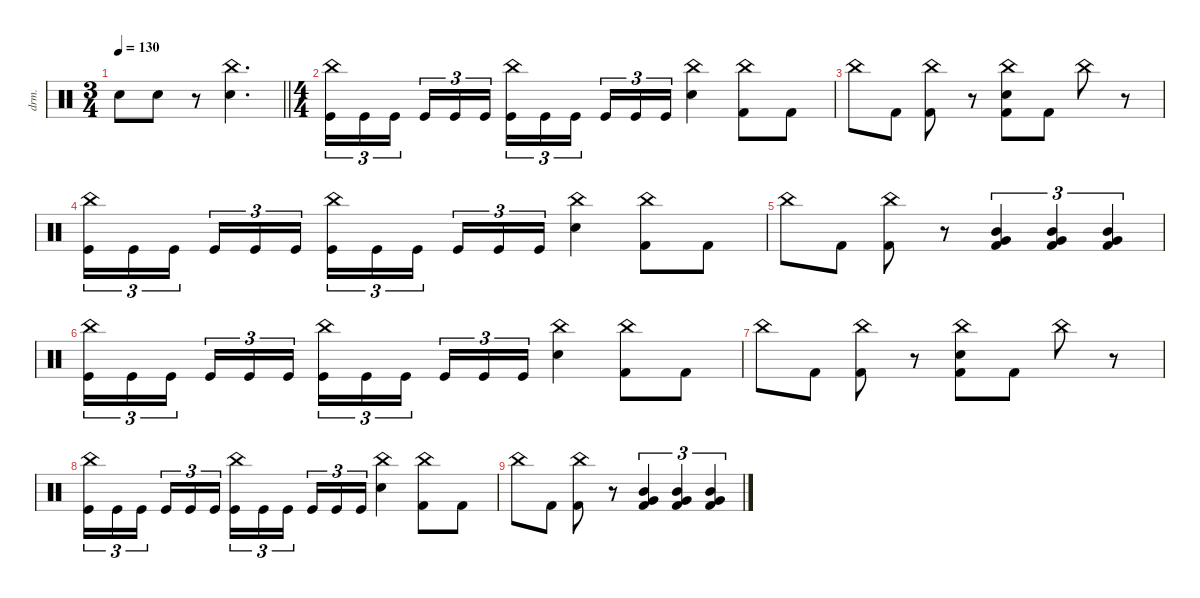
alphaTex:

\defaultSystemsLayout 4
\hideDynamics
\bracketExtendMode nobrackets
\track ("Manouche" "drm.") {solo instrument percussion}
\staff {score}
\articulation defaults
\ts (3 4)
\tempo 130
\clef neutral
\barLineRight lightlight
\ks c "Snare (hit) 2".8{dy f beam Down} "Snare (hit) 2".8{beam Down}
r.8{beam Down} ("China (hit)" "Snare (hit) 2").4{d beam Down} |
\ts (4 4)
\beaming (8 2 2 2 2)
("Kick (hit)" "China (hit)").16{tu (3 2) beam Down} "Kick (hit)".16{tu (3 2) beam Down} "Kick (hit)".16{tu (3 2) beam Down} "Kick (hit)".16{tu (3 2) beam Up} "Kick (hit)".16{tu (3 2) beam Up} "Kick (hit)".16{tu (3 2) beam Up} ("China (hit)" "Kick (hit)").16{tu (3 2) beam Down} "Kick (hit)".16{tu (3 2) beam Down} "Kick (hit)".16{tu (3 2) beam Down} "Kick (hit)".16{tu (3 2) beam Up} "Kick (hit)".16{tu (3 2) beam Up} "Kick (hit)".16{tu (3 2) beam Up} ("China (hit)" "Snare (hit) 2").4{beam Down} ("Kick (hit) 2" "China (hit)").8{beam Down} "Kick (hit) 2".8{beam Down} |
"China (hit)".8{beam Down} "Kick (hit) 2".8{beam Down} ("Kick (hit) 2" "China (hit)").8{beam Down} r.8{beam Down} ("Kick (hit) 2" "China (hit)" "Snare (hit) 2").8{beam Down} "Kick (hit) 2".8{beam Down} "China (hit)".8{beam Down} r.8{beam Down} |
("Kick (hit)" "China (hit)").16{tu (3 2) beam Down} "Kick (hit)".16{tu (3 2) beam Down} "Kick (hit)".16{tu (3 2) beam Down} "Kick (hit)".16{tu (3 2) beam Up} "Kick (hit)".16{tu (3 2) beam Up} "Kick (hit)".16{tu (3 2) beam Up} ("China (hit)" "Kick (hit)").16{tu (3 2) beam Down} "Kick (hit)".16{tu (3 2) beam Down} "Kick (hit)".16{tu (3 2) beam Down} "Kick (hit)".16{tu (3 2) beam Up} "Kick (hit)".16{tu (3 2) beam Up} "Kick (hit)".16{tu (3 2) beam Up} ("China (hit)" "Snare (hit) 2").4{beam Down} ("Kick (hit) 2" "China (hit)").8{beam Down} "Kick (hit) 2".8{beam Down} |
"China (hit)".8{beam Down} "Kick (hit) 2".8{beam Down} ("Kick (hit) 2" "China (hit)").8{beam Down} r.8{beam Down} ("Kick (hit) 2" "Mid Tom (hit)" "Very Low Tom (hit)").4{tu (3 2) beam Up} ("Kick (hit) 2" "Mid Tom (hit)" "Very Low Tom (hit)").4{tu (3 2) beam Up} ("Kick (hit) 2" "Mid Tom (hit)" "Very Low Tom (hit)").4{tu (3 2) beam Up} |
("Kick (hit)" "China (hit)").16{tu (3 2) beam Down} "Kick (hit)".16{tu (3 2) beam Down} "Kick (hit)".16{tu (3 2) beam Down} "Kick (hit)".16{tu (3 2) beam Up} "Kick (hit)".16{tu (3 2) beam Up} "Kick (hit)".16{tu (3 2) beam Up} ("China (hit)" "Kick (hit)").16{tu (3 2) beam Down} "Kick (hit)".16{tu (3 2) beam Down} "Kick (hit)".16{tu (3 2) beam Down} "Kick (hit)".16{tu (3 2) beam Up} "Kick (hit)".16{tu (3 2) beam Up} "Kick (hit)".16{tu (3 2) beam Up} ("China (hit)" "Snare (hit) 2").4{beam Down} ("Kick (hit) 2" "China (hit)").8{beam Down} "Kick (hit) 2".8{beam Down} |
"China (hit)".8{beam Down} "Kick (hit) 2".8{beam Down} ("Kick (hit) 2" "China (hit)").8{beam Down} r.8{beam Down} ("Kick (hit) 2" "China (hit)" "Snare (hit) 2").8{beam Down} "Kick (hit) 2".8{beam Down} "China (hit)".8{beam Down} r.8{beam Down} |
("Kick (hit)" "China (hit)").16{tu (3 2) beam Down} "Kick (hit)".16{tu (3 2) beam Down} "Kick (hit)".16{tu (3 2) beam Down} "Kick (hit)".16{tu (3 2) beam Up} "Kick (hit)".16{tu (3 2) beam Up} "Kick (hit)".16{tu (3 2) beam Up} ("China (hit)" "Kick (hit)").16{tu (3 2) beam Down} "Kick (hit)".16{tu (3 2) beam Down} "Kick (hit)".16{tu (3 2) beam Down} "Kick (hit)".16{tu (3 2) beam Up} "Kick (hit)".16{tu (3 2) beam Up} "Kick (hit)".16{tu (3 2) beam Up} ("China (hit)" "Snare (hit) 2").4{beam Down} ("Kick (hit) 2" "China (hit)").8{beam Down} "Kick (hit) 2".8{beam Down} |
"China (hit)".8{beam Down} "Kick (hit) 2".8{beam Down} ("Kick (hit) 2" "China (hit)").8{beam Down} r.8{beam Down} ("Kick (hit) 2" "Mid Tom (hit)" "Very Low Tom (hit)").4{tu (3 2) beam Up} ("Kick (hit) 2" "Mid Tom (hit)" "Very Low Tom (hit)").4{tu (3 2) beam Up} ("Kick (hit) 2" "Mid Tom (hit)" "Very Low Tom (hit)").4{tu (3 2) beam Up}
